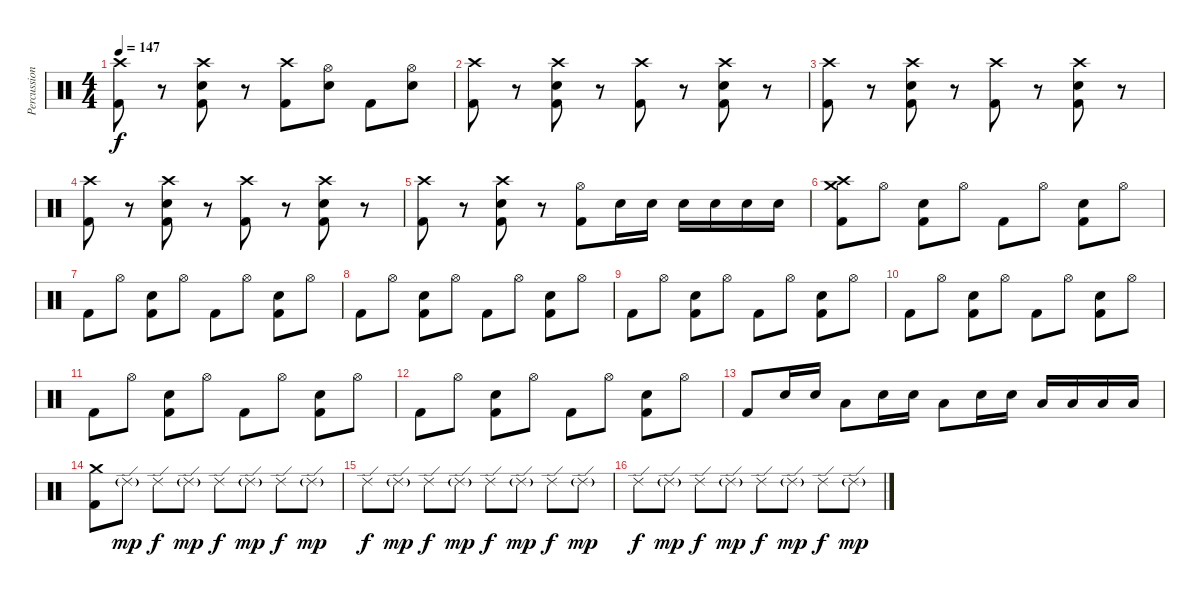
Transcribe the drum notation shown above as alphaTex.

\track ("Percussion" "Percussion") {instrument percussion}
\staff {score}
\articulation defaults
\ts (4 4)
\tempo 147
\clef neutral
\ks c
("Crash high (hit)" "Kick (hit) 2").8{dy f} r.8 ("Crash high (hit)" "Kick (hit) 2" "Electric Snare (hit)").8 r.8 ("Crash high (hit)" "Kick (hit) 2").8 ("Hi-Hat (open)" "Electric Snare (hit)").8 "Kick (hit) 2".8 ("Hi-Hat (open)" "Electric Snare (hit)").8 |
("Crash high (hit)" "Kick (hit) 2").8 r.8 ("Crash high (hit)" "Kick (hit) 2" "Electric Snare (hit)").8 r.8 ("Crash high (hit)" "Kick (hit) 2").8 r.8 ("Crash high (hit)" "Kick (hit) 2" "Electric Snare (hit)").8 r.8 |
("Crash high (hit)" "Kick (hit) 2").8 r.8 ("Crash high (hit)" "Kick (hit) 2" "Electric Snare (hit)").8 r.8 ("Crash high (hit)" "Kick (hit) 2").8 r.8 ("Crash high (hit)" "Kick (hit) 2" "Electric Snare (hit)").8 r.8 |
("Crash high (hit)" "Kick (hit) 2").8 r.8 ("Crash high (hit)" "Kick (hit) 2" "Electric Snare (hit)").8 r.8 ("Crash high (hit)" "Kick (hit) 2").8 r.8 ("Crash high (hit)" "Kick (hit) 2" "Electric Snare (hit)").8 r.8 |
("Crash high (hit)" "Kick (hit) 2").8 r.8 ("Crash high (hit)" "Kick (hit) 2" "Electric Snare (hit)").8 r.8 ("Hi-Hat (open)" "Kick (hit) 2").8 "Electric Snare (hit)".16 "Electric Snare (hit)".16 "Electric Snare (hit)".16 "Electric Snare (hit)".16 "Electric Snare (hit)".16 "Electric Snare (hit)".16 |
("Crash medium (hit)" "Kick (hit) 2" "Crash high (hit)").8 "Hi-Hat (open)".8 ("Electric Snare (hit)" "Kick (hit) 2").8 "Hi-Hat (open)".8 "Kick (hit) 2".8 "Hi-Hat (open)".8 ("Electric Snare (hit)" "Kick (hit) 2").8 "Hi-Hat (open)".8 |
"Kick (hit) 2".8 "Hi-Hat (open)".8 ("Electric Snare (hit)" "Kick (hit) 2").8 "Hi-Hat (open)".8 "Kick (hit) 2".8 "Hi-Hat (open)".8 ("Electric Snare (hit)" "Kick (hit) 2").8 "Hi-Hat (open)".8 |
"Kick (hit) 2".8 "Hi-Hat (open)".8 ("Electric Snare (hit)" "Kick (hit) 2").8 "Hi-Hat (open)".8 "Kick (hit) 2".8 "Hi-Hat (open)".8 ("Electric Snare (hit)" "Kick (hit) 2").8 "Hi-Hat (open)".8 |
"Kick (hit) 2".8 "Hi-Hat (open)".8 ("Electric Snare (hit)" "Kick (hit) 2").8 "Hi-Hat (open)".8 "Kick (hit) 2".8 "Hi-Hat (open)".8 ("Electric Snare (hit)" "Kick (hit) 2").8 "Hi-Hat (open)".8 |
"Kick (hit) 2".8 "Hi-Hat (open)".8 ("Electric Snare (hit)" "Kick (hit) 2").8 "Hi-Hat (open)".8 "Kick (hit) 2".8 "Hi-Hat (open)".8 ("Electric Snare (hit)" "Kick (hit) 2").8 "Hi-Hat (open)".8 |
"Kick (hit) 2".8 "Hi-Hat (open)".8 ("Electric Snare (hit)" "Kick (hit) 2").8 "Hi-Hat (open)".8 "Kick (hit) 2".8 "Hi-Hat (open)".8 ("Electric Snare (hit)" "Kick (hit) 2").8 "Hi-Hat (open)".8 |
"Kick (hit) 2".8 "Hi-Hat (open)".8 ("Electric Snare (hit)" "Kick (hit) 2").8 "Hi-Hat (open)".8 "Kick (hit) 2".8 "Hi-Hat (open)".8 ("Electric Snare (hit)" "Kick (hit) 2").8 "Hi-Hat (open)".8 |
"Kick (hit) 2".8 "Electric Snare (hit)".16 "Electric Snare (hit)".16 "Low Tom (hit)".8 "Electric Snare (hit)".16 "Electric Snare (hit)".16 "Low Tom (hit)".8 "Electric Snare (hit)".16 "Electric Snare (hit)".16 "Low Tom (hit)".16 "Low Tom (hit)".16 "Low Tom (hit)".16 "Low Tom (hit)".16 |
("Crash medium (hit)" "Kick (hit) 2").8 "Ride (edge) 2"{g}.8{dy mp} "Ride (edge) 2".8{dy f} "Ride (edge) 2"{g}.8{dy mp} "Ride (edge) 2".8{dy f} "Ride (edge) 2"{g}.8{dy mp} "Ride (edge) 2".8{dy f} "Ride (edge) 2"{g}.8{dy mp} |
"Ride (edge) 2".8{dy f} "Ride (edge) 2"{g}.8{dy mp} "Ride (edge) 2".8{dy f} "Ride (edge) 2"{g}.8{dy mp} "Ride (edge) 2".8{dy f} "Ride (edge) 2"{g}.8{dy mp} "Ride (edge) 2".8{dy f} "Ride (edge) 2"{g}.8{dy mp} |
"Ride (edge) 2".8{dy f} "Ride (edge) 2"{g}.8{dy mp} "Ride (edge) 2".8{dy f} "Ride (edge) 2"{g}.8{dy mp} "Ride (edge) 2".8{dy f} "Ride (edge) 2"{g}.8{dy mp} "Ride (edge) 2".8{dy f} "Ride (edge) 2"{g}.8{dy mp}
